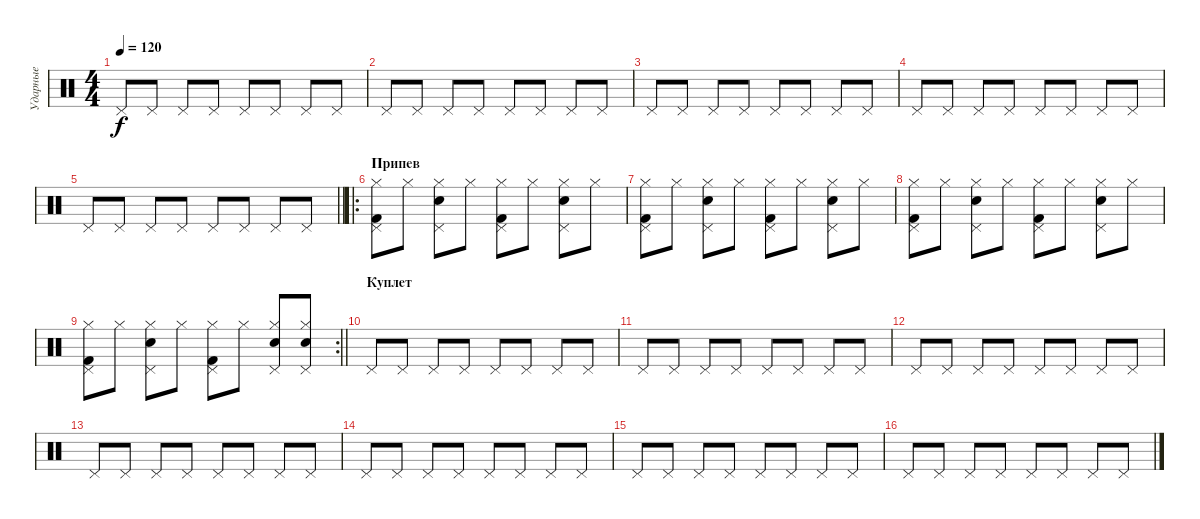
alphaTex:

\track ("Ударные" "Ударные") {instrument percussion}
\staff {score}
\articulation defaults
\ts (4 4)
\tempo 120
\clef neutral
\ks c "Pedal Hi-Hat (hit)".8{dy f} "Pedal Hi-Hat (hit)".8 "Pedal Hi-Hat (hit)".8 "Pedal Hi-Hat (hit)".8 "Pedal Hi-Hat (hit)".8 "Pedal Hi-Hat (hit)".8 "Pedal Hi-Hat (hit)".8 "Pedal Hi-Hat (hit)".8
|
"Pedal Hi-Hat (hit)".8 "Pedal Hi-Hat (hit)".8 "Pedal Hi-Hat (hit)".8 "Pedal Hi-Hat (hit)".8 "Pedal Hi-Hat (hit)".8 "Pedal Hi-Hat (hit)".8 "Pedal Hi-Hat (hit)".8 "Pedal Hi-Hat (hit)".8 |
"Pedal Hi-Hat (hit)".8 "Pedal Hi-Hat (hit)".8 "Pedal Hi-Hat (hit)".8 "Pedal Hi-Hat (hit)".8 "Pedal Hi-Hat (hit)".8 "Pedal Hi-Hat (hit)".8 "Pedal Hi-Hat (hit)".8 "Pedal Hi-Hat (hit)".8 |
"Pedal Hi-Hat (hit)".8 "Pedal Hi-Hat (hit)".8 "Pedal Hi-Hat (hit)".8 "Pedal Hi-Hat (hit)".8 "Pedal Hi-Hat (hit)".8 "Pedal Hi-Hat (hit)".8 "Pedal Hi-Hat (hit)".8 "Pedal Hi-Hat (hit)".8 |
\barLineRight lightlight "Pedal Hi-Hat (hit)".8 "Pedal Hi-Hat (hit)".8 "Pedal Hi-Hat (hit)".8 "Pedal Hi-Hat (hit)".8 "Pedal Hi-Hat (hit)".8 "Pedal Hi-Hat (hit)".8 "Pedal Hi-Hat (hit)".8 "Pedal Hi-Hat (hit)".8
|
\ro
\section ("" "Припев")
("Pedal Hi-Hat (hit)" "Hi-Hat (closed)" "Kick (hit) 2").8 "Hi-Hat (closed)".8 ("Pedal Hi-Hat (hit)" "Hi-Hat (closed)" "Snare (hit) 2").8 "Hi-Hat (closed)".8 ("Pedal Hi-Hat (hit)" "Hi-Hat (closed)" "Kick (hit) 2").8 "Hi-Hat (closed)".8 ("Pedal Hi-Hat (hit)" "Hi-Hat (closed)" "Snare (hit) 2").8 "Hi-Hat (closed)".8 |
("Pedal Hi-Hat (hit)" "Hi-Hat (closed)" "Kick (hit) 2").8 "Hi-Hat (closed)".8 ("Pedal Hi-Hat (hit)" "Hi-Hat (closed)" "Snare (hit) 2").8 "Hi-Hat (closed)".8 ("Pedal Hi-Hat (hit)" "Hi-Hat (closed)" "Kick (hit) 2").8 "Hi-Hat (closed)".8 ("Pedal Hi-Hat (hit)" "Hi-Hat (closed)" "Snare (hit) 2").8 "Hi-Hat (closed)".8 |
("Pedal Hi-Hat (hit)" "Hi-Hat (closed)" "Kick (hit) 2").8 "Hi-Hat (closed)".8 ("Pedal Hi-Hat (hit)" "Hi-Hat (closed)" "Snare (hit) 2").8 "Hi-Hat (closed)".8 ("Pedal Hi-Hat (hit)" "Hi-Hat (closed)" "Kick (hit) 2").8 "Hi-Hat (closed)".8 ("Pedal Hi-Hat (hit)" "Hi-Hat (closed)" "Snare (hit) 2").8 "Hi-Hat (closed)".8 |
\rc 2
\barLineRight lightlight
("Pedal Hi-Hat (hit)" "Hi-Hat (closed)" "Kick (hit) 2").8 "Hi-Hat (closed)".8 ("Pedal Hi-Hat (hit)" "Hi-Hat (closed)" "Snare (hit) 2").8 "Hi-Hat (closed)".8 ("Pedal Hi-Hat (hit)" "Hi-Hat (closed)" "Kick (hit) 2").8 "Hi-Hat (closed)".8 ("Pedal Hi-Hat (hit)" "Hi-Hat (closed)" "Snare (hit) 2").8 ("Pedal Hi-Hat (hit)" "Hi-Hat (closed)" "Snare (hit) 2").8 |
\section ("" "Куплет")
"Pedal Hi-Hat (hit)".8{volume 10} "Pedal Hi-Hat (hit)".8 "Pedal Hi-Hat (hit)".8 "Pedal Hi-Hat (hit)".8 "Pedal Hi-Hat (hit)".8 "Pedal Hi-Hat (hit)".8 "Pedal Hi-Hat (hit)".8 "Pedal Hi-Hat (hit)".8 |
"Pedal Hi-Hat (hit)".8 "Pedal Hi-Hat (hit)".8 "Pedal Hi-Hat (hit)".8 "Pedal Hi-Hat (hit)".8 "Pedal Hi-Hat (hit)".8 "Pedal Hi-Hat (hit)".8 "Pedal Hi-Hat (hit)".8 "Pedal Hi-Hat (hit)".8 |
"Pedal Hi-Hat (hit)".8 "Pedal Hi-Hat (hit)".8 "Pedal Hi-Hat (hit)".8 "Pedal Hi-Hat (hit)".8 "Pedal Hi-Hat (hit)".8 "Pedal Hi-Hat (hit)".8 "Pedal Hi-Hat (hit)".8 "Pedal Hi-Hat (hit)".8 |
"Pedal Hi-Hat (hit)".8 "Pedal Hi-Hat (hit)".8 "Pedal Hi-Hat (hit)".8 "Pedal Hi-Hat (hit)".8 "Pedal Hi-Hat (hit)".8 "Pedal Hi-Hat (hit)".8 "Pedal Hi-Hat (hit)".8 "Pedal Hi-Hat (hit)".8 |
"Pedal Hi-Hat (hit)".8 "Pedal Hi-Hat (hit)".8 "Pedal Hi-Hat (hit)".8 "Pedal Hi-Hat (hit)".8 "Pedal Hi-Hat (hit)".8 "Pedal Hi-Hat (hit)".8 "Pedal Hi-Hat (hit)".8 "Pedal Hi-Hat (hit)".8 |
"Pedal Hi-Hat (hit)".8 "Pedal Hi-Hat (hit)".8 "Pedal Hi-Hat (hit)".8 "Pedal Hi-Hat (hit)".8 "Pedal Hi-Hat (hit)".8 "Pedal Hi-Hat (hit)".8 "Pedal Hi-Hat (hit)".8 "Pedal Hi-Hat (hit)".8 |
"Pedal Hi-Hat (hit)".8 "Pedal Hi-Hat (hit)".8 "Pedal Hi-Hat (hit)".8 "Pedal Hi-Hat (hit)".8 "Pedal Hi-Hat (hit)".8 "Pedal Hi-Hat (hit)".8 "Pedal Hi-Hat (hit)".8 "Pedal Hi-Hat (hit)".8
